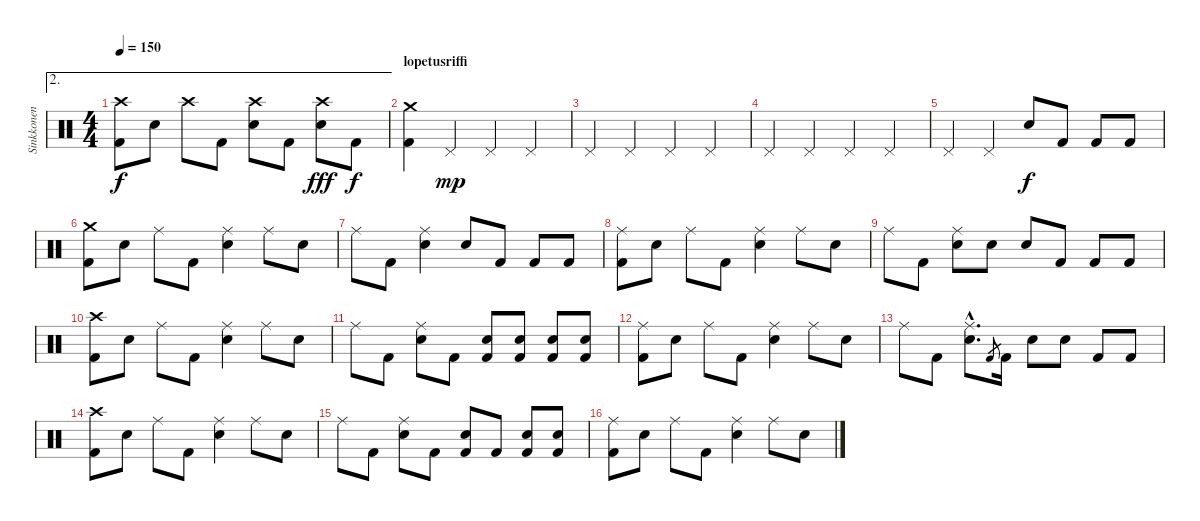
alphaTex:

\track ("Sinkkonen" "Sinkkonen") {instrument percussion}
\staff {score}
\articulation defaults
\ae 2
\ts (4 4)
\tempo 150
\clef neutral
\ks c
("Kick (hit) 2" "Crash high (hit)").8{dy f} "Snare (hit) 2".8 "Crash high (hit)".8 "Kick (hit) 2".8 ("Crash high (hit)" "Snare (hit) 2").8 "Kick (hit) 2".8 ("Crash high (hit)" "Snare (hit) 2").8{dy fff} "Kick (hit) 2".8{dy f} |
\section ("" "lopetusriffi")
("Kick (hit) 2" "Crash medium (hit)").4 "Pedal Hi-Hat (hit)".4{dy mp} "Pedal Hi-Hat (hit)".4 "Pedal Hi-Hat (hit)".4 |
"Pedal Hi-Hat (hit)".4 "Pedal Hi-Hat (hit)".4 "Pedal Hi-Hat (hit)".4 "Pedal Hi-Hat (hit)".4 |
"Pedal Hi-Hat (hit)".4 "Pedal Hi-Hat (hit)".4 "Pedal Hi-Hat (hit)".4 "Pedal Hi-Hat (hit)".4 |
"Pedal Hi-Hat (hit)".4 "Pedal Hi-Hat (hit)".4 "Snare (hit) 2".8{dy f} "Kick (hit) 2".8 "Kick (hit) 2".8 "Kick (hit) 2".8 |
("Kick (hit) 2" "Crash medium (hit)").8 "Snare (hit) 2".8 "Ride (middle)".8 "Kick (hit) 2".8 ("Ride (middle)" "Snare (hit) 2").4 "Ride (middle)".8 "Snare (hit) 2".8 |
"Ride (middle)".8 "Kick (hit) 2".8 ("Ride (middle)" "Snare (hit) 2").4 "Snare (hit) 2".8 "Kick (hit) 2".8 "Kick (hit) 2".8 "Kick (hit) 2".8 |
("Kick (hit) 2" "Ride (middle)").8 "Snare (hit) 2".8 "Ride (middle)".8 "Kick (hit) 2".8 ("Ride (middle)" "Snare (hit) 2").4 "Ride (middle)".8 "Snare (hit) 2".8 |
"Ride (middle)".8 "Kick (hit) 2".8 ("Ride (middle)" "Snare (hit) 2").8 "Snare (hit) 2".8 "Snare (hit) 2".8 "Kick (hit) 2".8 "Kick (hit) 2".8 "Kick (hit) 2".8 |
("Kick (hit) 2" "Crash high (hit)").8 "Snare (hit) 2".8 "Ride (middle)".8 "Kick (hit) 2".8 ("Ride (middle)" "Snare (hit) 2").4 "Ride (middle)".8 "Snare (hit) 2".8 |
"Ride (middle)".8 "Kick (hit) 2".8 ("Ride (middle)" "Snare (hit) 2").8 "Kick (hit) 2".8 ("Kick (hit) 2" "Snare (hit) 2").8 ("Kick (hit) 2" "Snare (hit) 2").8 ("Kick (hit) 2" "Snare (hit) 2").8 ("Kick (hit) 2" "Snare (hit) 2").8 |
("Kick (hit) 2" "Ride (middle)").8 "Snare (hit) 2".8 "Ride (middle)".8 "Kick (hit) 2".8 ("Ride (middle)" "Snare (hit) 2").4 "Ride (middle)".8 "Snare (hit) 2".8 |
"Ride (middle)".8 "Kick (hit) 2".8 ("Ride (middle)"{hac} "Snare (hit) 2"{hac}).8{d} "Kick (hit) 2".8{gr} "Kick (hit) 2".16 "Snare (hit) 2".8 "Snare (hit) 2".8 "Kick (hit) 2".8 "Kick (hit) 2".8 |
("Kick (hit) 2" "Crash high (hit)").8 "Snare (hit) 2".8 "Ride (middle)".8 "Kick (hit) 2".8 ("Ride (middle)" "Snare (hit) 2").4 "Ride (middle)".8 "Snare (hit) 2".8 |
"Ride (middle)".8 "Kick (hit) 2".8 ("Ride (middle)" "Snare (hit) 2").8 "Kick (hit) 2".8 ("Kick (hit) 2" "Snare (hit) 2").8 "Kick (hit) 2".8 ("Kick (hit) 2" "Snare (hit) 2").8 ("Kick (hit) 2" "Snare (hit) 2").8 |
("Kick (hit) 2" "Ride (middle)").8 "Snare (hit) 2".8 "Ride (middle)".8 "Kick (hit) 2".8 ("Ride (middle)" "Snare (hit) 2").4 "Ride (middle)".8 "Snare (hit) 2".8
